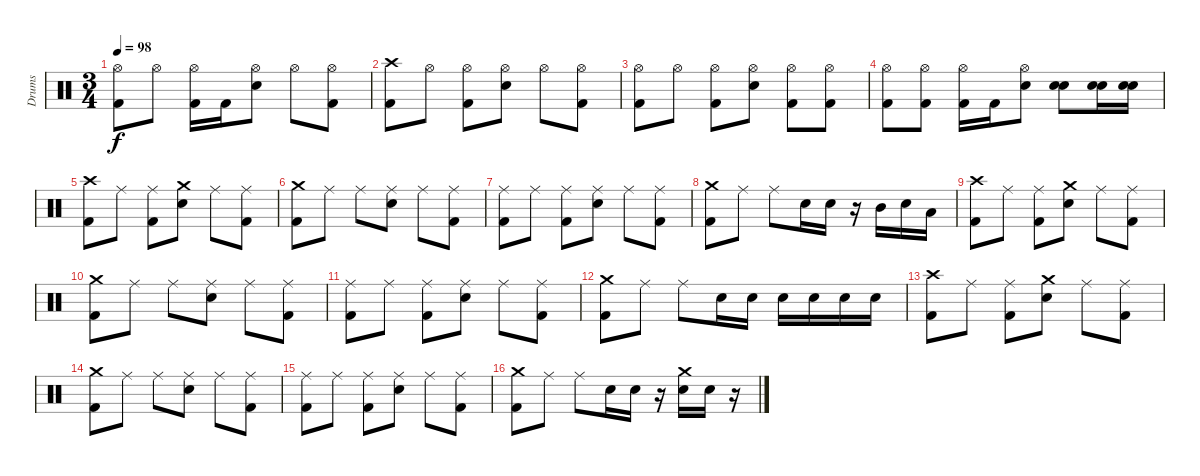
\track ("Drums" "Drums") {instrument percussion}
\staff {score}
\articulation defaults
\ts (3 4)
\tempo 98
\clef neutral
\ks c
("Hi-Hat (open)" "Kick (hit) 2").8{dy f} "Hi-Hat (open)".8 ("Hi-Hat (open)" "Kick (hit) 2").16 "Kick (hit) 2".16 ("Hi-Hat (open)" "Snare (hit) 2").8 "Hi-Hat (open)".8 ("Hi-Hat (open)" "Kick (hit) 2").8 |
("Crash high (hit)" "Kick (hit) 2").8 "Hi-Hat (open)".8 ("Hi-Hat (open)" "Kick (hit) 2").8 ("Hi-Hat (open)" "Snare (hit) 2").8 "Hi-Hat (open)".8 ("Hi-Hat (open)" "Kick (hit) 2").8 |
("Hi-Hat (open)" "Kick (hit) 2").8 "Hi-Hat (open)".8 ("Hi-Hat (open)" "Kick (hit) 2").8 ("Hi-Hat (open)" "Snare (hit) 2").8 ("Hi-Hat (open)" "Kick (hit) 2").8 ("Hi-Hat (open)" "Kick (hit) 2").8 |
("Hi-Hat (open)" "Kick (hit) 2").8 ("Hi-Hat (open)" "Kick (hit) 2").8 ("Hi-Hat (open)" "Kick (hit) 2").16 "Kick (hit) 2".16 ("Hi-Hat (open)" "Snare (hit) 2").8 ("Snare (hit) 2" "Snare (hit) 2").8 ("Snare (hit) 2" "Snare (hit) 2").16 ("Snare (hit) 2" "Snare (hit) 2").16 |
("Crash high (hit)" "Kick (hit) 2").8 "Ride (middle)".8 ("Ride (middle)" "Kick (hit) 2").8 ("Crash medium (hit)" "Snare (hit) 2").8 "Ride (middle)".8 ("Ride (middle)" "Kick (hit) 2").8 |
("Crash medium (hit)" "Kick (hit) 2").8 "Ride (middle)".8 "Ride (middle)".8 ("Ride (middle)" "Snare (hit) 2").8 "Ride (middle)".8 ("Ride (middle)" "Kick (hit) 2").8 |
("Ride (middle)" "Kick (hit) 2").8 "Ride (middle)".8 ("Ride (middle)" "Kick (hit) 2").8 ("Ride (middle)" "Snare (hit) 2").8 "Ride (middle)".8 ("Ride (middle)" "Kick (hit) 2").8 |
("Crash medium (hit)" "Kick (hit) 2").8 "Ride (middle)".8 "Ride (middle)".8 "Snare (hit) 2".16 "Snare (hit) 2".16 r.16 "Mid Tom (hit)".16 "Snare (hit) 2".16 "Low Tom (hit)".16 |
("Crash high (hit)" "Kick (hit) 2").8 "Ride (middle)".8 ("Ride (middle)" "Kick (hit) 2").8 ("Crash medium (hit)" "Snare (hit) 2").8 "Ride (middle)".8 ("Ride (middle)" "Kick (hit) 2").8 |
("Crash medium (hit)" "Kick (hit) 2").8 "Ride (middle)".8 "Ride (middle)".8 ("Ride (middle)" "Snare (hit) 2").8 "Ride (middle)".8 ("Ride (middle)" "Kick (hit) 2").8 |
("Ride (middle)" "Kick (hit) 2").8 "Ride (middle)".8 ("Ride (middle)" "Kick (hit) 2").8 ("Ride (middle)" "Snare (hit) 2").8 "Ride (middle)".8 ("Ride (middle)" "Kick (hit) 2").8 |
("Crash medium (hit)" "Kick (hit) 2").8 "Ride (middle)".8 "Ride (middle)".8 "Snare (hit) 2".16 "Snare (hit) 2".16 "Snare (hit) 2".16 "Snare (hit) 2".16 "Snare (hit) 2".16 "Snare (hit) 2".16 |
("Crash high (hit)" "Kick (hit) 2").8 "Ride (middle)".8 ("Ride (middle)" "Kick (hit) 2").8 ("Crash medium (hit)" "Snare (hit) 2").8 "Ride (middle)".8 ("Ride (middle)" "Kick (hit) 2").8 |
("Crash medium (hit)" "Kick (hit) 2").8 "Ride (middle)".8 "Ride (middle)".8 ("Ride (middle)" "Snare (hit) 2").8 "Ride (middle)".8 ("Ride (middle)" "Kick (hit) 2").8 |
("Ride (middle)" "Kick (hit) 2").8 "Ride (middle)".8 ("Ride (middle)" "Kick (hit) 2").8 ("Ride (middle)" "Snare (hit) 2").8 "Ride (middle)".8 ("Ride (middle)" "Kick (hit) 2").8 |
("Crash medium (hit)" "Kick (hit) 2").8 "Ride (middle)".8 "Ride (middle)".8 "Snare (hit) 2".16 "Snare (hit) 2".16 r.16 ("Crash medium (hit)" "Snare (hit) 2").16 "Snare (hit) 2".16 r.16
